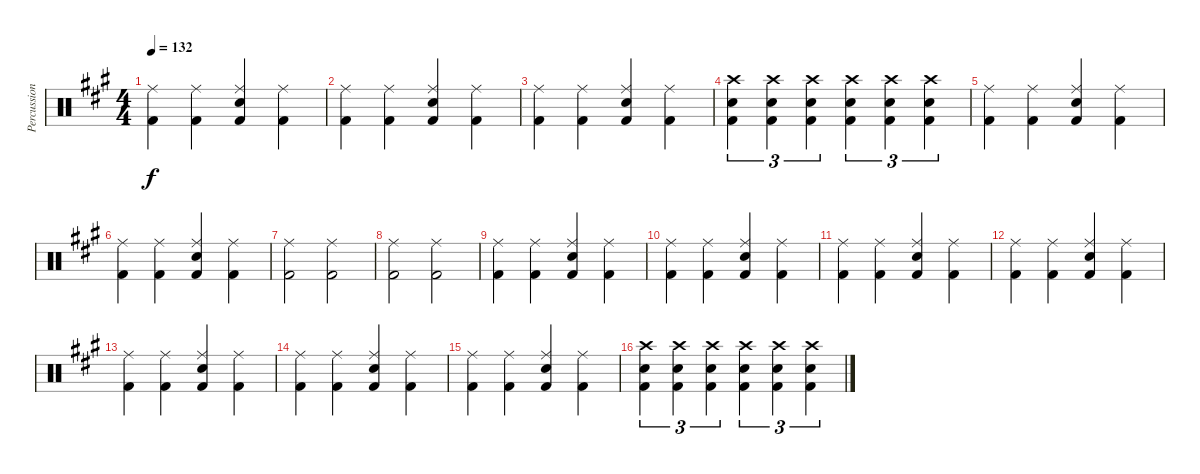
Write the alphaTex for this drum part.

\track ("Percussion" "Percussion") {instrument percussion}
\staff {score}
\articulation defaults
\ts (4 4)
\tempo 132
\clef neutral
\ks a
("Kick (hit) 2" "Ride (middle)").4{dy f} ("Kick (hit) 2" "Ride (middle)").4 ("Kick (hit) 2" "Electric Snare (hit)" "Ride (middle)").4 ("Kick (hit) 2" "Ride (middle)").4 |
("Kick (hit) 2" "Ride (middle)").4 ("Kick (hit) 2" "Ride (middle)").4 ("Kick (hit) 2" "Electric Snare (hit)" "Ride (middle)").4 ("Kick (hit) 2" "Ride (middle)").4 |
("Kick (hit) 2" "Ride (middle)").4 ("Kick (hit) 2" "Ride (middle)").4 ("Kick (hit) 2" "Electric Snare (hit)" "Ride (middle)").4 ("Kick (hit) 2" "Ride (middle)").4 |
("Kick (hit) 2" "Electric Snare (hit)" "Crash high (hit)").4{tu (3 2)} ("Kick (hit) 2" "Electric Snare (hit)" "Crash high (hit)").4{tu (3 2)} ("Kick (hit) 2" "Electric Snare (hit)" "Crash high (hit)").4{tu (3 2)} ("Kick (hit) 2" "Electric Snare (hit)" "Crash high (hit)").4{tu (3 2)} ("Kick (hit) 2" "Electric Snare (hit)" "Crash high (hit)").4{tu (3 2)} ("Kick (hit) 2" "Electric Snare (hit)" "Crash high (hit)").4{tu (3 2)} |
("Kick (hit) 2" "Ride (middle)").4 ("Kick (hit) 2" "Ride (middle)").4 ("Kick (hit) 2" "Electric Snare (hit)" "Ride (middle)").4 ("Kick (hit) 2" "Ride (middle)").4 |
("Kick (hit) 2" "Ride (middle)").4 ("Kick (hit) 2" "Ride (middle)").4 ("Kick (hit) 2" "Electric Snare (hit)" "Ride (middle)").4 ("Kick (hit) 2" "Ride (middle)").4 |
("Kick (hit) 2" "Ride (middle)").2 ("Kick (hit) 2" "Ride (middle)").2 |
("Kick (hit) 2" "Ride (middle)").2 ("Kick (hit) 2" "Ride (middle)").2 |
("Kick (hit) 2" "Ride (middle)").4 ("Kick (hit) 2" "Ride (middle)").4 ("Kick (hit) 2" "Electric Snare (hit)" "Ride (middle)").4 ("Kick (hit) 2" "Ride (middle)").4 |
("Kick (hit) 2" "Ride (middle)").4 ("Kick (hit) 2" "Ride (middle)").4 ("Kick (hit) 2" "Electric Snare (hit)" "Ride (middle)").4 ("Kick (hit) 2" "Ride (middle)").4 |
("Kick (hit) 2" "Ride (middle)").4 ("Kick (hit) 2" "Ride (middle)").4 ("Kick (hit) 2" "Electric Snare (hit)" "Ride (middle)").4 ("Kick (hit) 2" "Ride (middle)").4 |
("Kick (hit) 2" "Ride (middle)").4 ("Kick (hit) 2" "Ride (middle)").4 ("Kick (hit) 2" "Electric Snare (hit)" "Ride (middle)").4 ("Kick (hit) 2" "Ride (middle)").4 |
("Kick (hit) 2" "Ride (middle)").4 ("Kick (hit) 2" "Ride (middle)").4 ("Kick (hit) 2" "Electric Snare (hit)" "Ride (middle)").4 ("Kick (hit) 2" "Ride (middle)").4 |
("Kick (hit) 2" "Ride (middle)").4 ("Kick (hit) 2" "Ride (middle)").4 ("Kick (hit) 2" "Electric Snare (hit)" "Ride (middle)").4 ("Kick (hit) 2" "Ride (middle)").4 |
("Kick (hit) 2" "Ride (middle)").4 ("Kick (hit) 2" "Ride (middle)").4 ("Kick (hit) 2" "Electric Snare (hit)" "Ride (middle)").4 ("Kick (hit) 2" "Ride (middle)").4 |
("Kick (hit) 2" "Electric Snare (hit)" "Crash high (hit)").4{tu (3 2)} ("Kick (hit) 2" "Electric Snare (hit)" "Crash high (hit)").4{tu (3 2)} ("Kick (hit) 2" "Electric Snare (hit)" "Crash high (hit)").4{tu (3 2)} ("Kick (hit) 2" "Electric Snare (hit)" "Crash high (hit)").4{tu (3 2)} ("Kick (hit) 2" "Electric Snare (hit)" "Crash high (hit)").4{tu (3 2)} ("Kick (hit) 2" "Electric Snare (hit)" "Crash high (hit)").4{tu (3 2)}
